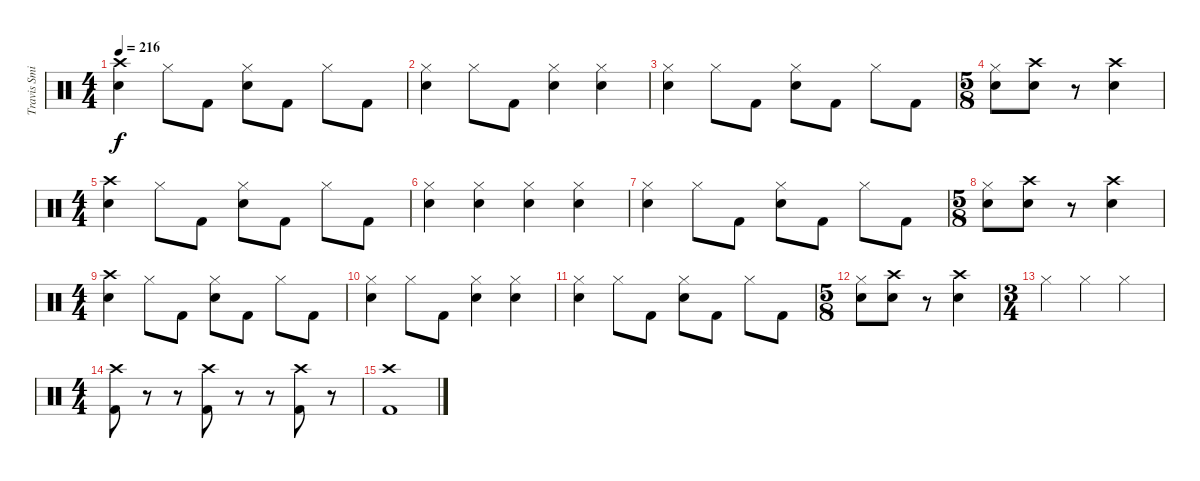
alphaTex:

\track ("Travis Smith (Drums)" "Travis Smi") {instrument percussion}
\staff {score}
\articulation defaults
\ts (4 4)
\tempo 216
\clef neutral
\ks c
("Crash high (hit)" "Electric Snare (hit)").4{dy f} "Hi-Hat (closed)".8 "Kick (hit) 2".8 ("Hi-Hat (closed)" "Electric Snare (hit)").8 "Kick (hit) 2".8 "Hi-Hat (closed)".8 "Kick (hit) 2".8 |
("Hi-Hat (closed)" "Electric Snare (hit)").4 "Hi-Hat (closed)".8 "Kick (hit) 2".8 ("Hi-Hat (closed)" "Electric Snare (hit)").4 ("Hi-Hat (closed)" "Electric Snare (hit)").4 |
("Hi-Hat (closed)" "Electric Snare (hit)").4 "Hi-Hat (closed)".8 "Kick (hit) 2".8 ("Hi-Hat (closed)" "Electric Snare (hit)").8 "Kick (hit) 2".8 "Hi-Hat (closed)".8 "Kick (hit) 2".8 |
\ts (5 8)
("Hi-Hat (closed)" "Electric Snare (hit)").8 ("Crash high (hit)" "Electric Snare (hit)").8 r.8 ("Crash high (hit)" "Electric Snare (hit)").4 |
\ts (4 4)
("Crash high (hit)" "Electric Snare (hit)").4 "Hi-Hat (closed)".8 "Kick (hit) 2".8 ("Hi-Hat (closed)" "Electric Snare (hit)").8 "Kick (hit) 2".8 "Hi-Hat (closed)".8 "Kick (hit) 2".8 |
("Hi-Hat (closed)" "Electric Snare (hit)").4 ("Hi-Hat (closed)" "Electric Snare (hit)").4 ("Hi-Hat (closed)" "Electric Snare (hit)").4 ("Hi-Hat (closed)" "Electric Snare (hit)").4 |
("Hi-Hat (closed)" "Electric Snare (hit)").4 "Hi-Hat (closed)".8 "Kick (hit) 2".8 ("Hi-Hat (closed)" "Electric Snare (hit)").8 "Kick (hit) 2".8 "Hi-Hat (closed)".8 "Kick (hit) 2".8 |
\ts (5 8)
("Hi-Hat (closed)" "Electric Snare (hit)").8 ("Crash high (hit)" "Electric Snare (hit)").8 r.8 ("Crash high (hit)" "Electric Snare (hit)").4 |
\ts (4 4)
("Crash high (hit)" "Electric Snare (hit)").4 "Hi-Hat (closed)".8 "Kick (hit) 2".8 ("Hi-Hat (closed)" "Electric Snare (hit)").8 "Kick (hit) 2".8 "Hi-Hat (closed)".8 "Kick (hit) 2".8 |
("Hi-Hat (closed)" "Electric Snare (hit)").4 "Hi-Hat (closed)".8 "Kick (hit) 2".8 ("Hi-Hat (closed)" "Electric Snare (hit)").4 ("Hi-Hat (closed)" "Electric Snare (hit)").4 |
("Hi-Hat (closed)" "Electric Snare (hit)").4 "Hi-Hat (closed)".8 "Kick (hit) 2".8 ("Hi-Hat (closed)" "Electric Snare (hit)").8 "Kick (hit) 2".8 "Hi-Hat (closed)".8 "Kick (hit) 2".8 |
\ts (5 8)
("Hi-Hat (closed)" "Electric Snare (hit)").8 ("Crash high (hit)" "Electric Snare (hit)").8 r.8 ("Crash high (hit)" "Electric Snare (hit)").4 |
\ts (3 4)
"Hi-Hat (closed)".4 "Hi-Hat (closed)".4 "Hi-Hat (closed)".4 |
\ts (4 4)
("Crash high (hit)" "Kick (hit) 2").8 r.8 r.8 ("Crash high (hit)" "Kick (hit) 2").8 r.8 r.8 ("Crash high (hit)" "Kick (hit) 2").8 r.8 |
("Crash high (hit)" "Kick (hit) 2").1
